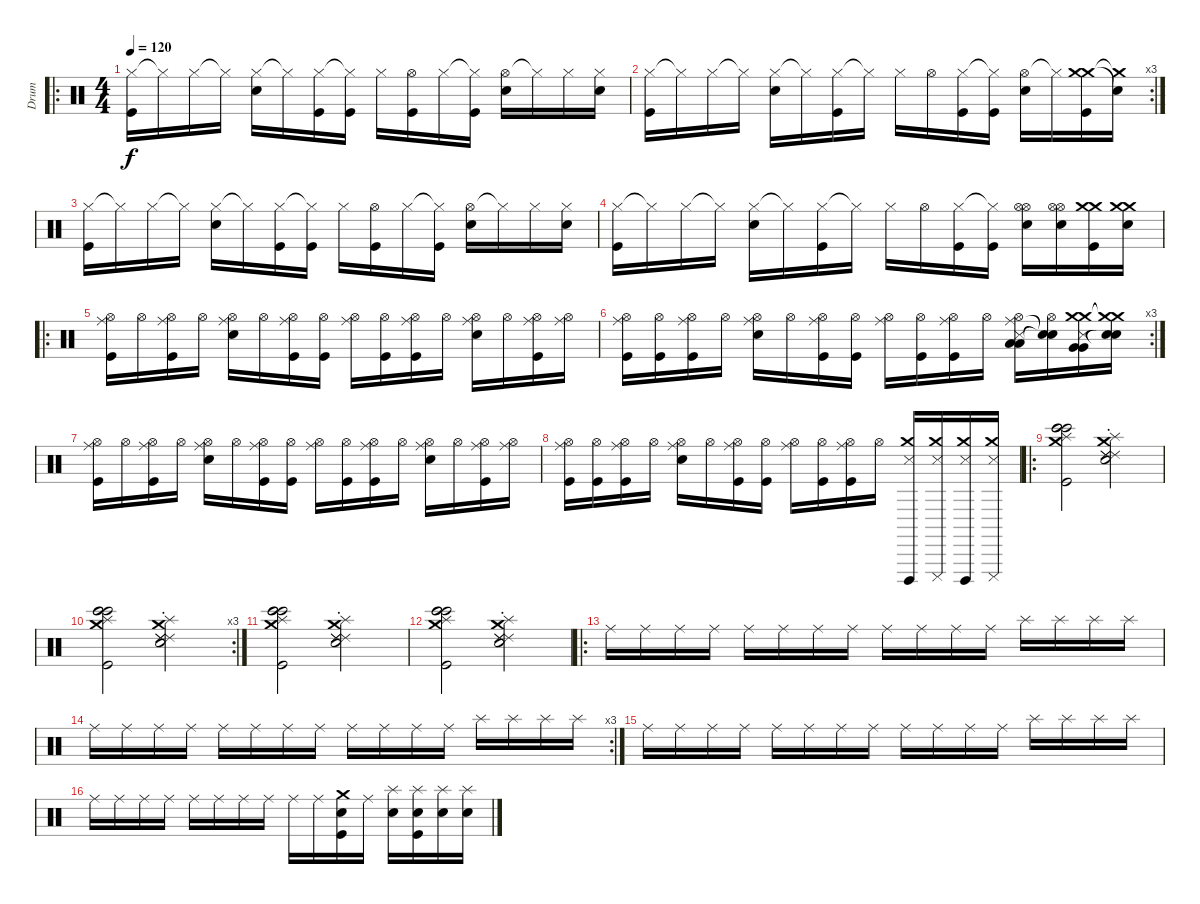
\track ("Drum" "Drum") {instrument percussion}
\staff {score}
\articulation defaults
\ro
\ts (4 4)
\tempo 120
\clef neutral
\ks c
("Hi-Hat (closed)" "Kick (hit)").16{dy f volume 14} "Hi-Hat (closed)"{t}.16 "Hi-Hat (closed)".16 "Hi-Hat (closed)"{t}.16 ("Hi-Hat (closed)" "Snare (hit) 2").16 "Hi-Hat (closed)"{t}.16 ("Hi-Hat (closed)" "Kick (hit)").16 ("Hi-Hat (closed)"{t} "Kick (hit)").16 "Hi-Hat (closed)".16 ("Hi-Hat (open)" "Kick (hit)").16 "Hi-Hat (closed)".16 ("Hi-Hat (closed)"{t} "Kick (hit)").16 ("Hi-Hat (open)" "Snare (hit) 2").16 "Hi-Hat (closed)"{t}.16 "Hi-Hat (closed)".16 ("Hi-Hat (closed)" "Snare (hit) 2").16 |
\rc 3
("Hi-Hat (closed)" "Kick (hit)").16 "Hi-Hat (closed)"{t}.16 "Hi-Hat (closed)".16 "Hi-Hat (closed)"{t}.16 ("Hi-Hat (closed)" "Snare (hit) 2").16 "Hi-Hat (closed)"{t}.16 ("Hi-Hat (closed)" "Kick (hit)").16 "Hi-Hat (closed)"{t}.16 "Hi-Hat (closed)".16 "Hi-Hat (open)".16 ("Hi-Hat (closed)" "Kick (hit)").16 ("Hi-Hat (closed)"{t} "Kick (hit)").16 ("Hi-Hat (open)" "Snare (hit) 2").16 "Hi-Hat (closed)"{t}.16 ("Crash medium (hit)" "Crash medium (hit)" "Kick (hit)").16 ("Crash medium (hit)"{t} "Snare (hit)"{t}).16 |
("Hi-Hat (closed)" "Kick (hit)").16 "Hi-Hat (closed)"{t}.16 "Hi-Hat (closed)".16 "Hi-Hat (closed)"{t}.16 ("Hi-Hat (closed)" "Snare (hit) 2").16 "Hi-Hat (closed)"{t}.16 ("Hi-Hat (closed)" "Kick (hit)").16 ("Hi-Hat (closed)"{t} "Kick (hit)").16 "Hi-Hat (closed)".16 ("Hi-Hat (open)" "Kick (hit)").16 "Hi-Hat (closed)".16 ("Hi-Hat (closed)"{t} "Kick (hit)").16 ("Hi-Hat (open)" "Snare (hit) 2").16 "Hi-Hat (closed)"{t}.16 "Hi-Hat (closed)".16 ("Hi-Hat (closed)" "Snare (hit) 2").16 |
("Hi-Hat (closed)" "Kick (hit)").16 "Hi-Hat (closed)"{t}.16 "Hi-Hat (closed)".16 "Hi-Hat (closed)"{t}.16 ("Hi-Hat (closed)" "Snare (hit) 2").16 "Hi-Hat (closed)"{t}.16 ("Hi-Hat (closed)" "Kick (hit)").16 "Hi-Hat (closed)"{t}.16 "Hi-Hat (closed)".16 "Hi-Hat (open)".16 ("Hi-Hat (closed)" "Kick (hit)").16 ("Hi-Hat (closed)"{t} "Kick (hit)").16 ("Hi-Hat (open)" "Hi-Hat (open)" "Snare (hit) 2").16{volume 16} ("Hi-Hat (open)" "Hi-Hat (open)" "Snare (hit) 2").16 ("Crash medium (hit)" "Crash medium (hit)" "Kick (hit)").16 ("Crash medium (hit)" "Crash medium (hit)" "Snare (hit) 2").16 |
\ro
("Hi-Hat (open)" "Ride (middle)" "Kick (hit)").16 "Hi-Hat (open)".16 ("Hi-Hat (open)" "Ride (middle)" "Kick (hit)").16 "Hi-Hat (open)".16 ("Hi-Hat (open)" "Ride (middle)" "Snare (hit) 2").16 "Hi-Hat (open)".16 ("Hi-Hat (open)" "Ride (middle)" "Kick (hit)").16 ("Hi-Hat (open)" "Kick (hit)").16 ("Hi-Hat (open)" "Ride (middle)").16 ("Hi-Hat (open)" "Kick (hit)").16 ("Hi-Hat (open)" "Ride (middle)" "Kick (hit)").16 "Hi-Hat (open)".16 ("Hi-Hat (open)" "Ride (middle)" "Snare (hit) 2").16 "Hi-Hat (open)".16 ("Hi-Hat (open)" "Ride (middle)" "Kick (hit)").16 ("Hi-Hat (open)" "Ride (middle)").16 |
\rc 3
("Hi-Hat (open)" "Ride (middle)" "Kick (hit)").16 ("Hi-Hat (open)" "Kick (hit)").16 ("Hi-Hat (open)" "Ride (middle)" "Kick (hit)").16 "Hi-Hat (open)".16 ("Hi-Hat (open)" "Ride (middle)" "Snare (hit) 2").16 "Hi-Hat (open)".16 ("Hi-Hat (open)" "Ride (middle)" "Kick (hit)").16 ("Hi-Hat (open)" "Kick (hit)").16 ("Hi-Hat (open)" "Ride (middle)").16 ("Hi-Hat (open)" "Kick (hit)").16 ("Hi-Hat (open)" "Ride (middle)" "Kick (hit)").16 "Hi-Hat (open)".16 ("Hi-Hat (open)" "Ride (middle)" "Low Tom (hit)" "Low Tom (hit)" "Metronome (hit)").16 ("Hi-Hat (open)" "Snare (hit)"{t} "Snare (hit)"{t}).16 ("Crash medium (hit)" "Crash medium (hit)" "Very Low Tom (hit)" "Very Low Tom (hit)" "Metronome (hit)").16 ("Crash medium (hit)"{t} "Crash medium (hit)"{t} "Snare (hit)"{t} "Snare (hit)"{t}).16 |
("Hi-Hat (open)" "Ride (middle)" "Kick (hit)").16 "Hi-Hat (open)".16 ("Hi-Hat (open)" "Ride (middle)" "Kick (hit)").16 "Hi-Hat (open)".16 ("Hi-Hat (open)" "Ride (middle)" "Snare (hit) 2").16 "Hi-Hat (open)".16 ("Hi-Hat (open)" "Ride (middle)" "Kick (hit)").16 ("Hi-Hat (open)" "Kick (hit)").16 ("Hi-Hat (open)" "Ride (middle)").16 ("Hi-Hat (open)" "Kick (hit)").16 ("Hi-Hat (open)" "Ride (middle)" "Kick (hit)").16 "Hi-Hat (open)".16 ("Hi-Hat (open)" "Ride (middle)" "Snare (hit) 2").16 "Hi-Hat (open)".16 ("Hi-Hat (open)" "Ride (middle)" "Kick (hit)").16 ("Hi-Hat (open)" "Ride (middle)").16 |
("Hi-Hat (open)" "Ride (middle)" "Kick (hit)").16 ("Hi-Hat (open)" "Kick (hit)").16 ("Hi-Hat (open)" "Ride (middle)" "Kick (hit)").16 "Hi-Hat (open)".16 ("Hi-Hat (open)" "Ride (middle)" "Snare (hit) 2").16 "Hi-Hat (open)".16 ("Hi-Hat (open)" "Ride (middle)" "Kick (hit)").16 ("Hi-Hat (open)" "Kick (hit)").16 ("Hi-Hat (open)" "Ride (middle)").16 ("Hi-Hat (open)" "Kick (hit)").16 ("Hi-Hat (open)" "Ride (middle)" "Kick (hit)").16 "Hi-Hat (open)".16 ("Crash medium (hit)" "Cuica (open)" "Metronome (hit)").16 ("Crash medium (hit)" "Cuica (mute)" "Metronome (hit)").16 ("Crash medium (hit)" "Cuica (open)" "Metronome (hit)").16 ("Crash medium (hit)" "Cuica (mute)" "Metronome (hit)").16 |
\ro
("Crash medium (hit)" "Bongo High (hit)" "Bongo High (hit)" "Bongo High (hit)" "Kick (hit)" "Splash (hit)").2 ("Crash medium (hit)" "Ride (choke) 2" "Ride (choke) 2" "Ride (choke) 2" "Snare (hit) 2" "Splash (hit)").2 |
\rc 3
("Crash medium (hit)" "Bongo High (hit)" "Bongo High (hit)" "Bongo High (hit)" "Kick (hit)" "Splash (hit)").2 ("Crash medium (hit)" "Ride (choke) 2" "Ride (choke) 2" "Ride (choke) 2" "Snare (hit) 2" "Splash (hit)").2 |
("Crash medium (hit)" "Bongo High (hit)" "Bongo High (hit)" "Bongo High (hit)" "Kick (hit)" "Splash (hit)").2 ("Crash medium (hit)" "Ride (choke) 2" "Ride (choke) 2" "Ride (choke) 2" "Snare (hit) 2" "Splash (hit)").2 |
("Crash medium (hit)" "Bongo High (hit)" "Bongo High (hit)" "Bongo High (hit)" "Kick (hit)" "Splash (hit)").2 ("Crash medium (hit)" "Ride (choke) 2" "Ride (choke) 2" "Ride (choke) 2" "Snare (hit) 2" "Splash (hit)").2 |
\ro "Ride (middle)".16 "Ride (middle)".16 "Ride (middle)".16 "Ride (middle)".16 "Ride (middle)".16 "Ride (middle)".16 "Ride (middle)".16 "Ride (middle)".16 "Ride (middle)".16 "Ride (middle)".16 "Ride (middle)".16 "Ride (middle)".16 "Splash (hit)".16 "Splash (hit)".16 "Splash (hit)".16 "Splash (hit)".16
|
\rc 3 "Ride (middle)".16 "Ride (middle)".16 "Ride (middle)".16 "Ride (middle)".16 "Ride (middle)".16 "Ride (middle)".16 "Ride (middle)".16 "Ride (middle)".16 "Ride (middle)".16 "Ride (middle)".16 "Ride (middle)".16 "Ride (middle)".16 "Splash (hit)".16 "Splash (hit)".16 "Splash (hit)".16 "Splash (hit)".16
|
"Ride (middle)".16 "Ride (middle)".16 "Ride (middle)".16 "Ride (middle)".16 "Ride (middle)".16 "Ride (middle)".16 "Ride (middle)".16 "Ride (middle)".16 "Ride (middle)".16 "Ride (middle)".16 "Ride (middle)".16 "Ride (middle)".16 "Splash (hit)".16 "Splash (hit)".16 "Splash (hit)".16 "Splash (hit)".16 |
"Ride (middle)".16 "Ride (middle)".16 "Ride (middle)".16 "Ride (middle)".16 "Ride (middle)".16 "Ride (middle)".16 "Ride (middle)".16 "Ride (middle)".16 "Ride (middle)".16 "Ride (middle)".16 ("Crash medium (hit)" "Snare (hit) 2" "Kick (hit)").16 "Ride (middle)".16 ("Splash (hit)" "Snare (hit) 2").16 ("Splash (hit)" "Snare (hit) 2" "Kick (hit)").16 ("Splash (hit)" "Snare (hit) 2").16 ("Splash (hit)" "Snare (hit) 2").16
